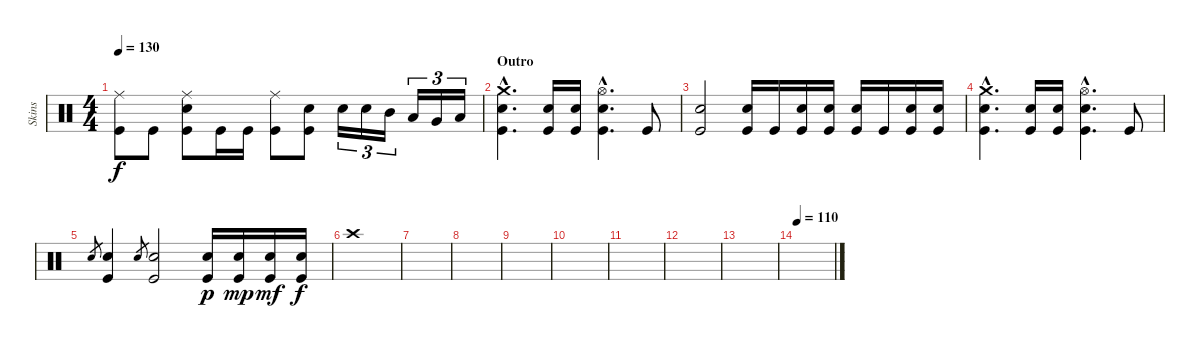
\track ("Skins" "Skins") {instrument percussion}
\staff {score}
\articulation defaults
\ts (4 4)
\tempo 130
\clef neutral
\ks c
("Ride (middle)" "Kick (hit)").8{dy f} "Kick (hit)".8 ("Ride (middle)" "Electric Snare (hit)" "Kick (hit)").8 "Kick (hit)".16 "Kick (hit)".16 ("Ride (middle)" "Kick (hit)").8 ("Electric Snare (hit)" "Kick (hit)").8 "Electric Snare (hit)".16{tu (3 2)} "Electric Snare (hit)".16{tu (3 2)} "Mid Tom (hit)".16{tu (3 2)} "Low Tom (hit)".16{tu (3 2)} "Very Low Tom (hit)".16{tu (3 2)} "Low Floor Tom (hit)".16{tu (3 2)} |
\section ("" "Outro")
("Crash medium (hit)"{hac} "Electric Snare (hit)"{hac} "Kick (hit)"{hac}).4{d volume 12} ("Electric Snare (hit)" "Kick (hit)").16 ("Electric Snare (hit)" "Kick (hit)").16 ("Hi-Hat (open)"{hac} "Electric Snare (hit)"{hac} "Kick (hit)"{hac}).4{d} "Kick (hit)".8 |
("Electric Snare (hit)" "Kick (hit)").2 ("Electric Snare (hit)" "Kick (hit)").16 "Kick (hit)".16 ("Electric Snare (hit)" "Kick (hit)").16 ("Electric Snare (hit)" "Kick (hit)").16 ("Electric Snare (hit)" "Kick (hit)").16 "Kick (hit)".16 ("Electric Snare (hit)" "Kick (hit)").16 ("Electric Snare (hit)" "Kick (hit)").16 |
("Crash medium (hit)"{hac} "Electric Snare (hit)"{hac} "Kick (hit)"{hac}).4{d} ("Electric Snare (hit)" "Kick (hit)").16 ("Electric Snare (hit)" "Kick (hit)").16 ("Hi-Hat (open)"{hac} "Electric Snare (hit)"{hac} "Kick (hit)"{hac}).4{d} "Kick (hit)".8 |
"Electric Snare (hit)".8{gr} ("Electric Snare (hit)" "Kick (hit)").4 "Electric Snare (hit)".8{gr} ("Electric Snare (hit)" "Kick (hit)").2 ("Electric Snare (hit)" "Kick (hit)").16{dy p} ("Electric Snare (hit)" "Kick (hit)").16{dy mp} ("Electric Snare (hit)" "Kick (hit)").16{dy mf} ("Electric Snare (hit)" "Kick (hit)").16{dy f} |
"Crash high (hit)".1 |
|
|
|
|
|
|
|
\tempo 110
